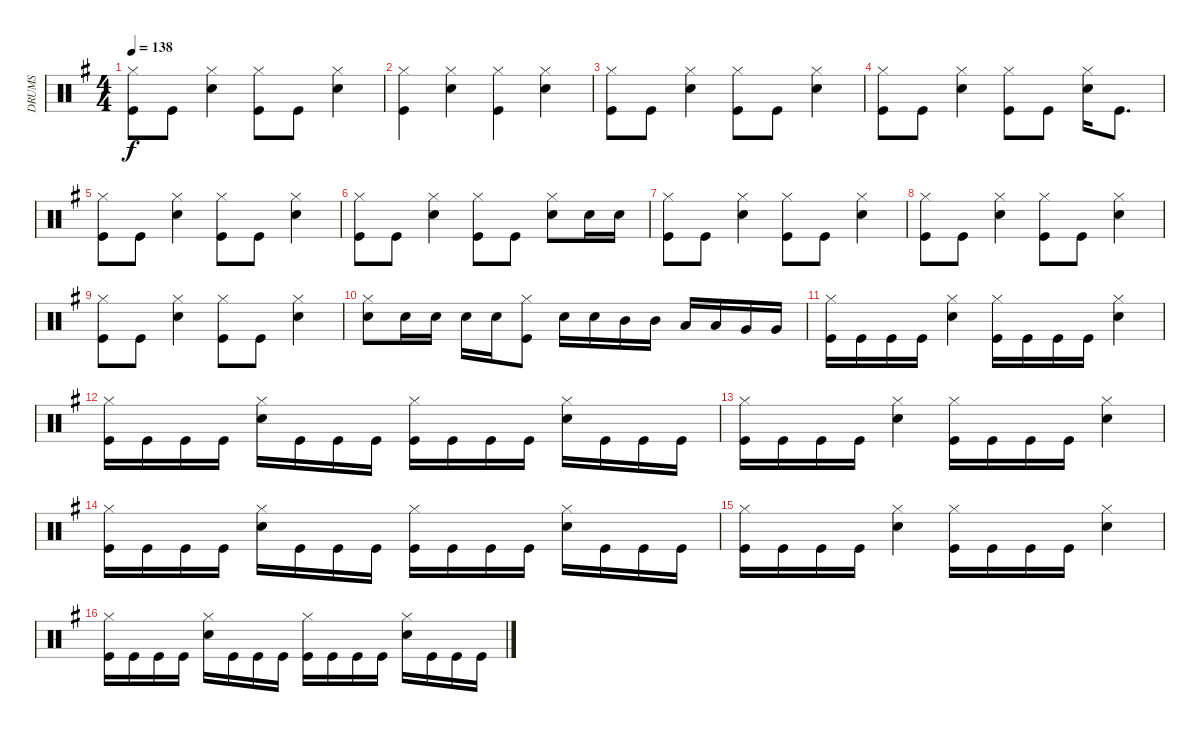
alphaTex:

\track ("DRUMS" "DRUMS") {instrument percussion}
\staff {score}
\articulation defaults
\ts (4 4)
\tempo 138
\clef neutral
\ks eminor
("Hi-Hat (closed)" "Kick (hit)").8{dy f} "Kick (hit)".8 ("Hi-Hat (closed)" "Snare (hit) 2").4 ("Hi-Hat (closed)" "Kick (hit)").8 "Kick (hit)".8 ("Hi-Hat (closed)" "Snare (hit) 2").4 |
("Hi-Hat (closed)" "Kick (hit)").4 ("Hi-Hat (closed)" "Snare (hit) 2").4 ("Hi-Hat (closed)" "Kick (hit)").4 ("Hi-Hat (closed)" "Snare (hit) 2").4 |
("Hi-Hat (closed)" "Kick (hit)").8 "Kick (hit)".8 ("Hi-Hat (closed)" "Snare (hit) 2").4 ("Hi-Hat (closed)" "Kick (hit)").8 "Kick (hit)".8 ("Hi-Hat (closed)" "Snare (hit) 2").4 |
("Hi-Hat (closed)" "Kick (hit)").8 "Kick (hit)".8 ("Hi-Hat (closed)" "Snare (hit) 2").4 ("Hi-Hat (closed)" "Kick (hit)").8 "Kick (hit)".8 ("Hi-Hat (closed)" "Snare (hit) 2").16 "Kick (hit)".8{d} |
("Hi-Hat (closed)" "Kick (hit)").8 "Kick (hit)".8 ("Hi-Hat (closed)" "Snare (hit) 2").4 ("Hi-Hat (closed)" "Kick (hit)").8 "Kick (hit)".8 ("Hi-Hat (closed)" "Snare (hit) 2").4 |
("Hi-Hat (closed)" "Kick (hit)").8 "Kick (hit)".8 ("Hi-Hat (closed)" "Snare (hit) 2").4 ("Hi-Hat (closed)" "Kick (hit)").8 "Kick (hit)".8 ("Hi-Hat (closed)" "Snare (hit) 2").8 "Snare (hit) 2".16 "Snare (hit) 2".16 |
("Hi-Hat (closed)" "Kick (hit)").8 "Kick (hit)".8 ("Hi-Hat (closed)" "Snare (hit) 2").4 ("Hi-Hat (closed)" "Kick (hit)").8 "Kick (hit)".8 ("Hi-Hat (closed)" "Snare (hit) 2").4 |
("Hi-Hat (closed)" "Kick (hit)").8 "Kick (hit)".8 ("Hi-Hat (closed)" "Snare (hit) 2").4 ("Hi-Hat (closed)" "Kick (hit)").8 "Kick (hit)".8 ("Hi-Hat (closed)" "Snare (hit) 2").4 |
("Hi-Hat (closed)" "Kick (hit)").8 "Kick (hit)".8 ("Hi-Hat (closed)" "Snare (hit) 2").4 ("Hi-Hat (closed)" "Kick (hit)").8 "Kick (hit)".8 ("Hi-Hat (closed)" "Snare (hit) 2").4 |
("Hi-Hat (closed)" "Snare (hit) 2").8 "Snare (hit) 2".16 "Snare (hit) 2".16 "Snare (hit) 2".16 "Snare (hit) 2".16 ("Hi-Hat (closed)" "Kick (hit)").8 "Snare (hit) 2".16 "Snare (hit) 2".16 "Mid Tom (hit)".16 "Mid Tom (hit)".16 "Low Tom (hit)".16 "Low Tom (hit)".16 "Very Low Tom (hit)".16 "Very Low Tom (hit)".16 |
("Hi-Hat (closed)" "Kick (hit)").16 "Kick (hit)".16 "Kick (hit)".16 "Kick (hit)".16 ("Hi-Hat (closed)" "Snare (hit) 2").4 ("Hi-Hat (closed)" "Kick (hit)").16 "Kick (hit)".16 "Kick (hit)".16 "Kick (hit)".16 ("Hi-Hat (closed)" "Snare (hit) 2").4 |
("Hi-Hat (closed)" "Kick (hit)").16 "Kick (hit)".16 "Kick (hit)".16 "Kick (hit)".16 ("Hi-Hat (closed)" "Snare (hit) 2").16 "Kick (hit)".16 "Kick (hit)".16 "Kick (hit)".16 ("Hi-Hat (closed)" "Kick (hit)").16 "Kick (hit)".16 "Kick (hit)".16 "Kick (hit)".16 ("Hi-Hat (closed)" "Snare (hit) 2").16 "Kick (hit)".16 "Kick (hit)".16 "Kick (hit)".16 |
("Hi-Hat (closed)" "Kick (hit)").16 "Kick (hit)".16 "Kick (hit)".16 "Kick (hit)".16 ("Hi-Hat (closed)" "Snare (hit) 2").4 ("Hi-Hat (closed)" "Kick (hit)").16 "Kick (hit)".16 "Kick (hit)".16 "Kick (hit)".16 ("Hi-Hat (closed)" "Snare (hit) 2").4 |
("Hi-Hat (closed)" "Kick (hit)").16 "Kick (hit)".16 "Kick (hit)".16 "Kick (hit)".16 ("Hi-Hat (closed)" "Snare (hit) 2").16 "Kick (hit)".16 "Kick (hit)".16 "Kick (hit)".16 ("Hi-Hat (closed)" "Kick (hit)").16 "Kick (hit)".16 "Kick (hit)".16 "Kick (hit)".16 ("Hi-Hat (closed)" "Snare (hit) 2").16 "Kick (hit)".16 "Kick (hit)".16 "Kick (hit)".16 |
("Hi-Hat (closed)" "Kick (hit)").16 "Kick (hit)".16 "Kick (hit)".16 "Kick (hit)".16 ("Hi-Hat (closed)" "Snare (hit) 2").4 ("Hi-Hat (closed)" "Kick (hit)").16 "Kick (hit)".16 "Kick (hit)".16 "Kick (hit)".16 ("Hi-Hat (closed)" "Snare (hit) 2").4 |
("Hi-Hat (closed)" "Kick (hit)").16 "Kick (hit)".16 "Kick (hit)".16 "Kick (hit)".16 ("Hi-Hat (closed)" "Snare (hit) 2").16 "Kick (hit)".16 "Kick (hit)".16 "Kick (hit)".16 ("Hi-Hat (closed)" "Kick (hit)").16 "Kick (hit)".16 "Kick (hit)".16 "Kick (hit)".16 ("Hi-Hat (closed)" "Snare (hit) 2").16 "Kick (hit)".16 "Kick (hit)".16 "Kick (hit)".16
